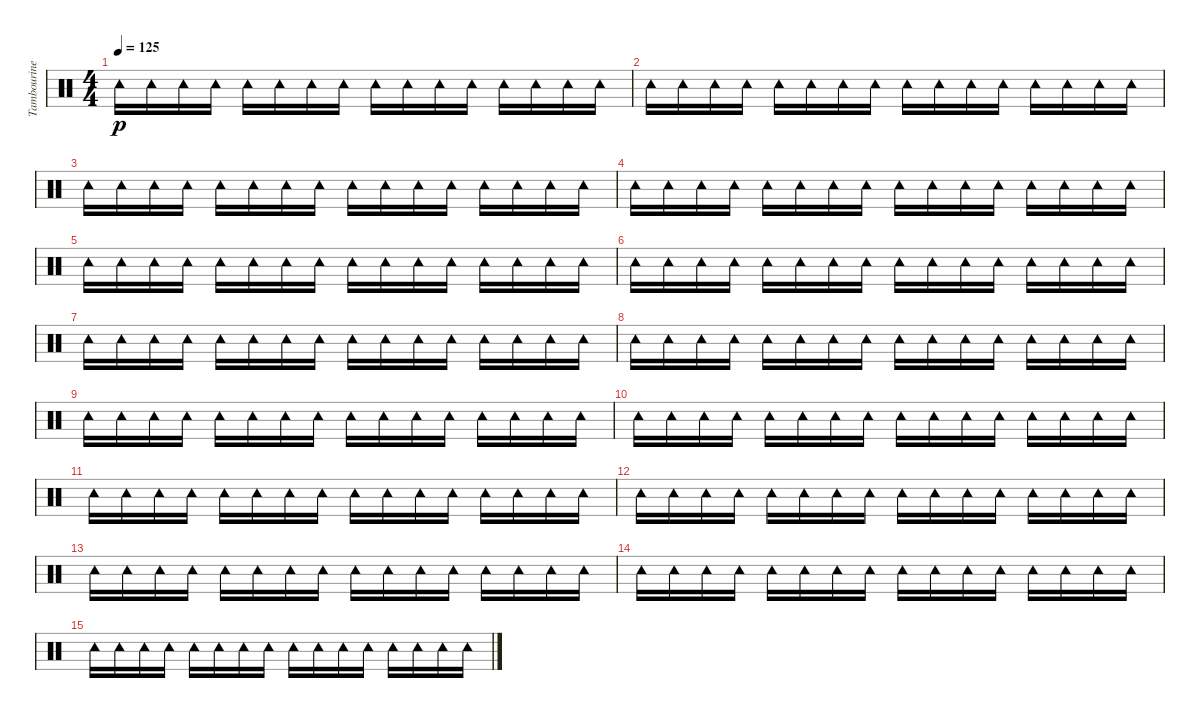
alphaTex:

\track ("Tambourine" "Tambourine") {instrument percussion}
\staff {score}
\articulation defaults
\ts (4 4)
\tempo 125
\clef neutral
\ks c "Tambourine (hit)".16{dy p} "Tambourine (hit)".16 "Tambourine (hit)".16 "Tambourine (hit)".16 "Tambourine (hit)".16 "Tambourine (hit)".16 "Tambourine (hit)".16 "Tambourine (hit)".16 "Tambourine (hit)".16 "Tambourine (hit)".16 "Tambourine (hit)".16 "Tambourine (hit)".16 "Tambourine (hit)".16 "Tambourine (hit)".16 "Tambourine (hit)".16 "Tambourine (hit)".16
|
"Tambourine (hit)".16 "Tambourine (hit)".16 "Tambourine (hit)".16 "Tambourine (hit)".16 "Tambourine (hit)".16 "Tambourine (hit)".16 "Tambourine (hit)".16 "Tambourine (hit)".16 "Tambourine (hit)".16 "Tambourine (hit)".16 "Tambourine (hit)".16 "Tambourine (hit)".16 "Tambourine (hit)".16 "Tambourine (hit)".16 "Tambourine (hit)".16 "Tambourine (hit)".16 |
"Tambourine (hit)".16 "Tambourine (hit)".16 "Tambourine (hit)".16 "Tambourine (hit)".16 "Tambourine (hit)".16 "Tambourine (hit)".16 "Tambourine (hit)".16 "Tambourine (hit)".16 "Tambourine (hit)".16 "Tambourine (hit)".16 "Tambourine (hit)".16 "Tambourine (hit)".16 "Tambourine (hit)".16 "Tambourine (hit)".16 "Tambourine (hit)".16 "Tambourine (hit)".16 |
"Tambourine (hit)".16 "Tambourine (hit)".16 "Tambourine (hit)".16 "Tambourine (hit)".16 "Tambourine (hit)".16 "Tambourine (hit)".16 "Tambourine (hit)".16 "Tambourine (hit)".16 "Tambourine (hit)".16 "Tambourine (hit)".16 "Tambourine (hit)".16 "Tambourine (hit)".16 "Tambourine (hit)".16 "Tambourine (hit)".16 "Tambourine (hit)".16 "Tambourine (hit)".16 |
"Tambourine (hit)".16 "Tambourine (hit)".16 "Tambourine (hit)".16 "Tambourine (hit)".16 "Tambourine (hit)".16 "Tambourine (hit)".16 "Tambourine (hit)".16 "Tambourine (hit)".16 "Tambourine (hit)".16 "Tambourine (hit)".16 "Tambourine (hit)".16 "Tambourine (hit)".16 "Tambourine (hit)".16 "Tambourine (hit)".16 "Tambourine (hit)".16 "Tambourine (hit)".16 |
"Tambourine (hit)".16 "Tambourine (hit)".16 "Tambourine (hit)".16 "Tambourine (hit)".16 "Tambourine (hit)".16 "Tambourine (hit)".16 "Tambourine (hit)".16 "Tambourine (hit)".16 "Tambourine (hit)".16 "Tambourine (hit)".16 "Tambourine (hit)".16 "Tambourine (hit)".16 "Tambourine (hit)".16 "Tambourine (hit)".16 "Tambourine (hit)".16 "Tambourine (hit)".16 |
"Tambourine (hit)".16 "Tambourine (hit)".16 "Tambourine (hit)".16 "Tambourine (hit)".16 "Tambourine (hit)".16 "Tambourine (hit)".16 "Tambourine (hit)".16 "Tambourine (hit)".16 "Tambourine (hit)".16 "Tambourine (hit)".16 "Tambourine (hit)".16 "Tambourine (hit)".16 "Tambourine (hit)".16 "Tambourine (hit)".16 "Tambourine (hit)".16 "Tambourine (hit)".16 |
"Tambourine (hit)".16 "Tambourine (hit)".16 "Tambourine (hit)".16 "Tambourine (hit)".16 "Tambourine (hit)".16 "Tambourine (hit)".16 "Tambourine (hit)".16 "Tambourine (hit)".16 "Tambourine (hit)".16 "Tambourine (hit)".16 "Tambourine (hit)".16 "Tambourine (hit)".16 "Tambourine (hit)".16 "Tambourine (hit)".16 "Tambourine (hit)".16 "Tambourine (hit)".16 |
"Tambourine (hit)".16 "Tambourine (hit)".16 "Tambourine (hit)".16 "Tambourine (hit)".16 "Tambourine (hit)".16 "Tambourine (hit)".16 "Tambourine (hit)".16 "Tambourine (hit)".16 "Tambourine (hit)".16 "Tambourine (hit)".16 "Tambourine (hit)".16 "Tambourine (hit)".16 "Tambourine (hit)".16 "Tambourine (hit)".16 "Tambourine (hit)".16 "Tambourine (hit)".16 |
"Tambourine (hit)".16 "Tambourine (hit)".16 "Tambourine (hit)".16 "Tambourine (hit)".16 "Tambourine (hit)".16 "Tambourine (hit)".16 "Tambourine (hit)".16 "Tambourine (hit)".16 "Tambourine (hit)".16 "Tambourine (hit)".16 "Tambourine (hit)".16 "Tambourine (hit)".16 "Tambourine (hit)".16 "Tambourine (hit)".16 "Tambourine (hit)".16 "Tambourine (hit)".16 |
"Tambourine (hit)".16 "Tambourine (hit)".16 "Tambourine (hit)".16 "Tambourine (hit)".16 "Tambourine (hit)".16 "Tambourine (hit)".16 "Tambourine (hit)".16 "Tambourine (hit)".16 "Tambourine (hit)".16 "Tambourine (hit)".16 "Tambourine (hit)".16 "Tambourine (hit)".16 "Tambourine (hit)".16 "Tambourine (hit)".16 "Tambourine (hit)".16 "Tambourine (hit)".16 |
"Tambourine (hit)".16 "Tambourine (hit)".16 "Tambourine (hit)".16 "Tambourine (hit)".16 "Tambourine (hit)".16 "Tambourine (hit)".16 "Tambourine (hit)".16 "Tambourine (hit)".16 "Tambourine (hit)".16 "Tambourine (hit)".16 "Tambourine (hit)".16 "Tambourine (hit)".16 "Tambourine (hit)".16 "Tambourine (hit)".16 "Tambourine (hit)".16 "Tambourine (hit)".16 |
"Tambourine (hit)".16 "Tambourine (hit)".16 "Tambourine (hit)".16 "Tambourine (hit)".16 "Tambourine (hit)".16 "Tambourine (hit)".16 "Tambourine (hit)".16 "Tambourine (hit)".16 "Tambourine (hit)".16 "Tambourine (hit)".16 "Tambourine (hit)".16 "Tambourine (hit)".16 "Tambourine (hit)".16 "Tambourine (hit)".16 "Tambourine (hit)".16 "Tambourine (hit)".16 |
"Tambourine (hit)".16 "Tambourine (hit)".16 "Tambourine (hit)".16 "Tambourine (hit)".16 "Tambourine (hit)".16 "Tambourine (hit)".16 "Tambourine (hit)".16 "Tambourine (hit)".16 "Tambourine (hit)".16 "Tambourine (hit)".16 "Tambourine (hit)".16 "Tambourine (hit)".16 "Tambourine (hit)".16 "Tambourine (hit)".16 "Tambourine (hit)".16 "Tambourine (hit)".16 |
"Tambourine (hit)".16 "Tambourine (hit)".16 "Tambourine (hit)".16 "Tambourine (hit)".16 "Tambourine (hit)".16 "Tambourine (hit)".16 "Tambourine (hit)".16 "Tambourine (hit)".16 "Tambourine (hit)".16 "Tambourine (hit)".16 "Tambourine (hit)".16 "Tambourine (hit)".16 "Tambourine (hit)".16 "Tambourine (hit)".16 "Tambourine (hit)".16 "Tambourine (hit)".16
